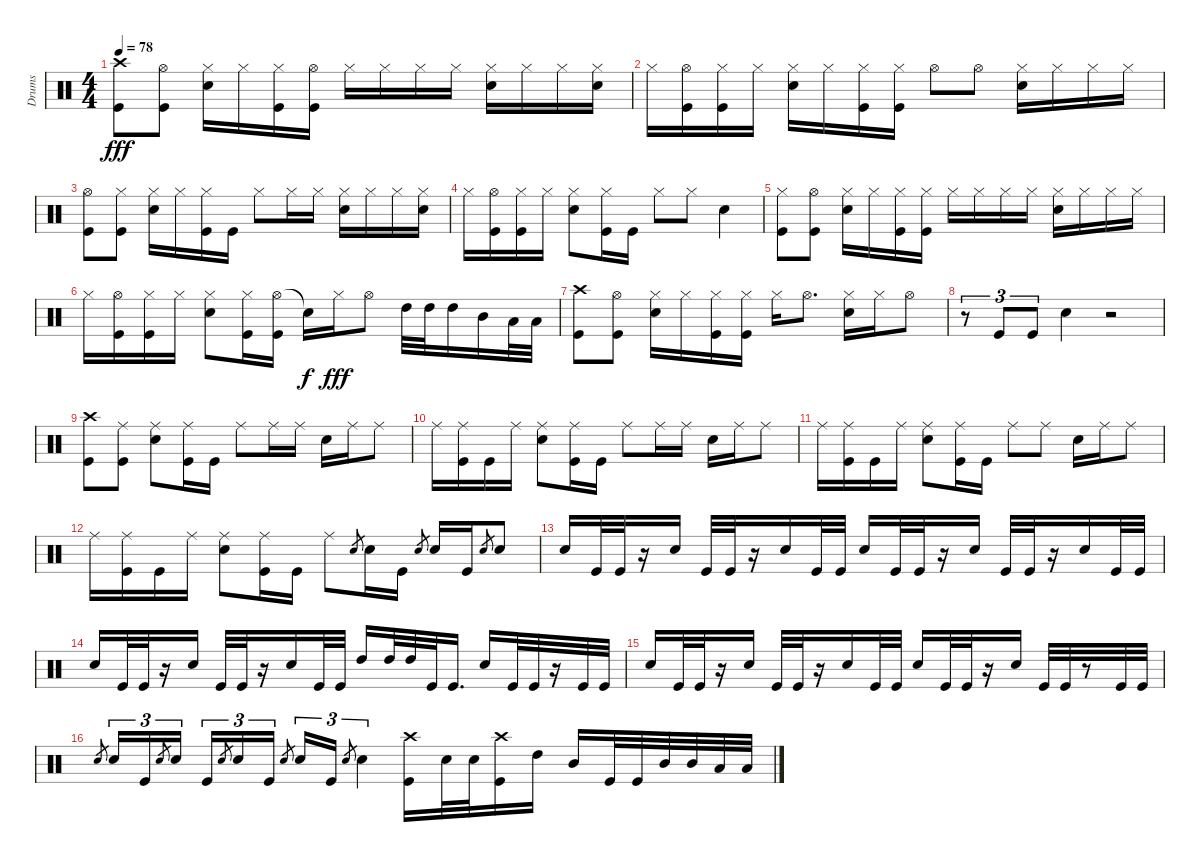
\track ("Drums" "Drums") {instrument percussion}
\staff {score}
\articulation defaults
\ts (4 4)
\tempo 78
\clef neutral
\ks c
("Crash high (hit)" "Kick (hit)").8{dy fff} ("Hi-Hat (open)" "Kick (hit)").8 ("Hi-Hat (closed)" "Snare (hit) 2").16 "Hi-Hat (closed)".16 ("Hi-Hat (closed)" "Kick (hit)").16 ("Hi-Hat (open)" "Kick (hit)").16 "Hi-Hat (closed)".16 "Hi-Hat (closed)".16 "Hi-Hat (closed)".16 "Hi-Hat (closed)".16 ("Hi-Hat (closed)" "Snare (hit) 2").16 "Hi-Hat (closed)".16 "Hi-Hat (closed)".16 ("Hi-Hat (closed)" "Snare (hit) 2").16 |
"Hi-Hat (closed)".16 ("Hi-Hat (open)" "Kick (hit)").16 ("Hi-Hat (closed)" "Kick (hit)").16 "Hi-Hat (closed)".16 ("Hi-Hat (closed)" "Snare (hit) 2").16 "Hi-Hat (closed)".16 ("Hi-Hat (closed)" "Kick (hit)").16 ("Hi-Hat (closed)" "Kick (hit)").16 "Hi-Hat (open)".8 "Hi-Hat (open)".8 ("Hi-Hat (closed)" "Snare (hit) 2").16 "Hi-Hat (closed)".16 "Hi-Hat (closed)".16 "Hi-Hat (closed)".16 |
("Hi-Hat (open)" "Kick (hit)").8 ("Hi-Hat (closed)" "Kick (hit)").8 ("Hi-Hat (closed)" "Snare (hit) 2").16 "Hi-Hat (closed)".16 ("Hi-Hat (closed)" "Kick (hit)").16 "Kick (hit)".16 "Hi-Hat (closed)".8 "Hi-Hat (closed)".16 "Hi-Hat (closed)".16 ("Hi-Hat (closed)" "Snare (hit) 2").16 "Hi-Hat (closed)".16 "Hi-Hat (closed)".16 ("Hi-Hat (closed)" "Snare (hit) 2").16 |
"Hi-Hat (closed)".16 ("Hi-Hat (open)" "Kick (hit)").16 ("Hi-Hat (closed)" "Kick (hit)").16 "Hi-Hat (closed)".16 ("Hi-Hat (closed)" "Snare (hit) 2").8 ("Hi-Hat (closed)" "Kick (hit)").16 "Kick (hit)".16 "Hi-Hat (closed)".8 "Hi-Hat (closed)".8 "Snare (hit) 2".4 |
("Hi-Hat (closed)" "Kick (hit)").8 ("Hi-Hat (open)" "Kick (hit)").8 ("Hi-Hat (closed)" "Snare (hit) 2").16 "Hi-Hat (closed)".16 ("Hi-Hat (closed)" "Kick (hit)").16 ("Hi-Hat (closed)" "Kick (hit)").16 "Hi-Hat (closed)".16 "Hi-Hat (closed)".16 "Hi-Hat (closed)".16 "Hi-Hat (closed)".16 ("Hi-Hat (closed)" "Snare (hit) 2").16 "Hi-Hat (closed)".16 "Hi-Hat (closed)".16 "Hi-Hat (closed)".16 |
"Hi-Hat (closed)".16 ("Hi-Hat (open)" "Kick (hit)").16 ("Hi-Hat (closed)" "Kick (hit)").16 "Hi-Hat (closed)".16 ("Hi-Hat (closed)" "Snare (hit) 2").8 ("Hi-Hat (closed)" "Kick (hit)").16 ("Hi-Hat (open)" "Kick (hit)").16 "Snare (hit)"{t}.16{dy f} "Hi-Hat (closed)".16{dy fff} "Hi-Hat (open)".8 "High Tom (hit)".32 "High Tom (hit)".32 "High Tom (hit)".16 "Mid Tom (hit)".16 "Low Tom (hit)".32 "Low Tom (hit)".32 |
("Crash high (hit)" "Kick (hit)").8 ("Hi-Hat (open)" "Kick (hit)").8 ("Hi-Hat (closed)" "Snare (hit) 2").16 "Hi-Hat (closed)".16 ("Hi-Hat (closed)" "Kick (hit)").16 ("Hi-Hat (closed)" "Kick (hit)").16 "Hi-Hat (closed)".16 "Hi-Hat (open)".8{d} ("Hi-Hat (closed)" "Snare (hit) 2").16 "Hi-Hat (closed)".16 "Hi-Hat (open)".8 |
r.8{tu (3 2)} "Kick (hit)".8{tu (3 2)} "Kick (hit)".8{tu (3 2)} "Snare (hit) 2".4 r.2 |
("Crash high (hit)" "Kick (hit)").8 ("Ride (middle)" "Kick (hit)").8 ("Ride (middle)" "Snare (hit) 2").8 ("Ride (middle)" "Kick (hit)").16 "Kick (hit)".16 "Ride (middle)".8 "Ride (middle)".16 "Ride (middle)".16 "Snare (hit) 2".16 "Ride (middle)".16 "Ride (middle)".8 |
"Ride (middle)".16 ("Ride (middle)" "Kick (hit)").16 "Kick (hit)".16 "Ride (middle)".16 ("Ride (middle)" "Snare (hit) 2").8 ("Ride (middle)" "Kick (hit)").16 "Kick (hit)".16 "Ride (middle)".8 "Ride (middle)".16 "Ride (middle)".16 "Snare (hit) 2".16 "Ride (middle)".16 "Ride (middle)".8 |
"Ride (middle)".16 ("Ride (middle)" "Kick (hit)").16 "Kick (hit)".16 "Ride (middle)".16 ("Ride (middle)" "Snare (hit) 2").8 ("Ride (middle)" "Kick (hit)").16 "Kick (hit)".16 "Ride (middle)".8 "Ride (middle)".8 "Snare (hit) 2".16 "Ride (middle)".16 "Ride (middle)".8 |
"Ride (middle)".16 ("Ride (middle)" "Kick (hit)").16 "Kick (hit)".16 "Ride (middle)".16 ("Ride (middle)" "Snare (hit) 2").8 ("Ride (middle)" "Kick (hit)").16 "Kick (hit)".16 "Ride (middle)".8 "Snare (hit) 2".8{gr} "Snare (hit) 2".16 "Kick (hit)".16 "Snare (hit) 2".8{gr} "Snare (hit) 2".16 "Kick (hit)".16 "Snare (hit) 2".8{gr} "Snare (hit) 2".8 |
"Snare (hit) 2".16 "Kick (hit)".32 "Kick (hit)".32 r.16 "Snare (hit) 2".16 "Kick (hit)".32 "Kick (hit)".32 r.16 "Snare (hit) 2".16 "Kick (hit)".32 "Kick (hit)".32 "Snare (hit) 2".16 "Kick (hit)".32 "Kick (hit)".32 r.16 "Snare (hit) 2".16 "Kick (hit)".32 "Kick (hit)".32 r.16 "Snare (hit) 2".16 "Kick (hit)".32 "Kick (hit)".32 |
"Snare (hit) 2".16 "Kick (hit)".32 "Kick (hit)".32 r.16 "Snare (hit) 2".16 "Kick (hit)".32 "Kick (hit)".32 r.16 "Snare (hit) 2".16 "Kick (hit)".32 "Kick (hit)".32 "High Tom (hit)".16 "High Tom (hit)".32 "High Tom (hit)".32 "Kick (hit)".32 "Kick (hit)".16{d} "Snare (hit) 2".16 "Kick (hit)".32 "Kick (hit)".32 r.16 "Kick (hit)".32 "Kick (hit)".32 |
"Snare (hit) 2".16 "Kick (hit)".32 "Kick (hit)".32 r.16 "Snare (hit) 2".16 "Kick (hit)".32 "Kick (hit)".32 r.16 "Snare (hit) 2".16 "Kick (hit)".32 "Kick (hit)".32 "Snare (hit) 2".16 "Kick (hit)".32 "Kick (hit)".32 r.16 "Snare (hit) 2".16 "Kick (hit)".32 "Kick (hit)".32 r.8 "Kick (hit)".32 "Kick (hit)".32 |
"Snare (hit) 2".8{gr} "Snare (hit) 2".16{tu (3 2)} "Kick (hit)".16{tu (3 2)} "Snare (hit) 2".8{gr} "Snare (hit) 2".16{tu (3 2)} "Kick (hit)".16{tu (3 2)} "Snare (hit) 2".8{gr} "Snare (hit) 2".16{tu (3 2)} "Kick (hit)".16{tu (3 2)} "Snare (hit) 2".8{gr} "Snare (hit) 2".16{tu (3 2)} "Kick (hit)".16{tu (3 2)} "Snare (hit) 2".8{gr} "Snare (hit) 2".4{tu (3 2)} ("Crash high (hit)" "Kick (hit)").16 "Snare (hit) 2".32 "Snare (hit) 2".32 ("Crash high (hit)" "Kick (hit)").16 "High Tom (hit)".16 "Mid Tom (hit)".16 "Kick (hit)".32 "Kick (hit)".32 "Mid Tom (hit)".32 "Mid Tom (hit)".32 "Low Tom (hit)".32 "Low Tom (hit)".32
